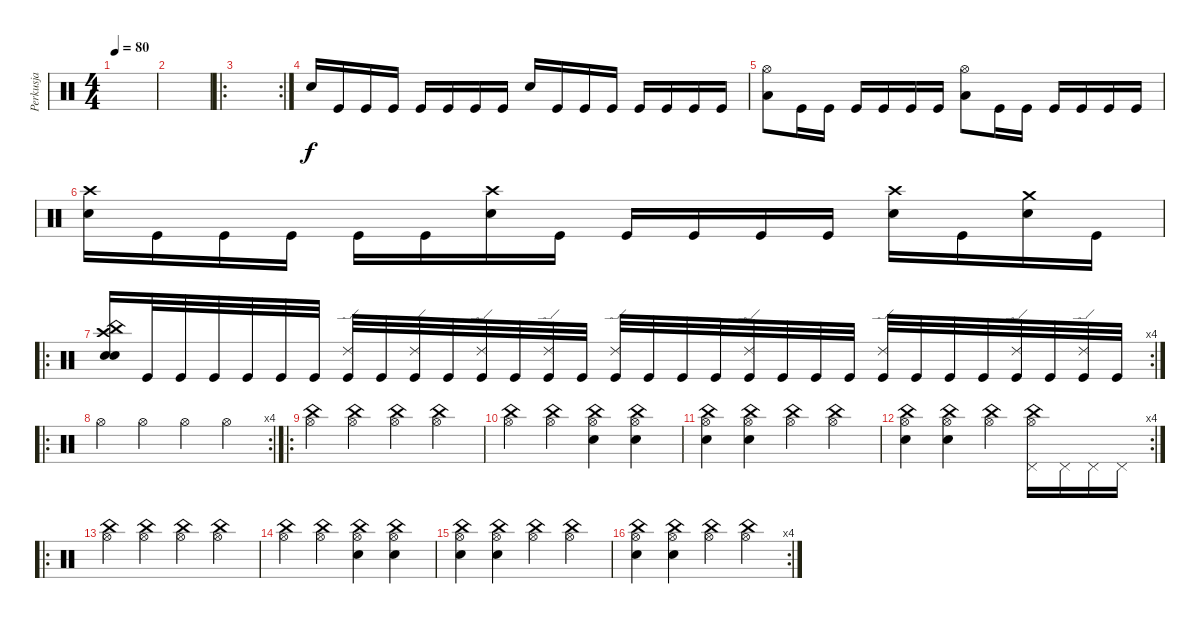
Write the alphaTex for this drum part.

\track ("Perkusja" "Perkusja") {instrument percussion}
\staff {score}
\articulation defaults
\ts (4 4)
\tempo 80
\clef neutral
\ks c
|
|
\ro
\rc 2
|
"Electric Snare (hit)".16 "Kick (hit)".16 "Kick (hit)".16 "Kick (hit)".16 "Kick (hit)".16 "Kick (hit)".16 "Kick (hit)".16 "Kick (hit)".16 "Electric Snare (hit)".16 "Kick (hit)".16 "Kick (hit)".16 "Kick (hit)".16 "Kick (hit)".16 "Kick (hit)".16 "Kick (hit)".16 "Kick (hit)".16 |
("Hi-Hat (open)" "Low Floor Tom (hit)").8 "Kick (hit)".16 "Kick (hit)".16 "Kick (hit)".16 "Kick (hit)".16 "Kick (hit)".16 "Kick (hit)".16 ("Hi-Hat (open)" "Low Floor Tom (hit)").8 "Kick (hit)".16 "Kick (hit)".16 "Kick (hit)".16 "Kick (hit)".16 "Kick (hit)".16 "Kick (hit)".16 |
("Crash high (hit)" "Electric Snare (hit)").16 "Kick (hit)".16 "Kick (hit)".16 "Kick (hit)".16 "Kick (hit)".16 "Kick (hit)".16 ("Crash high (hit)" "Electric Snare (hit)").16 "Kick (hit)".16 "Kick (hit)".16 "Kick (hit)".16 "Kick (hit)".16 "Kick (hit)".16 ("Crash high (hit)" "Electric Snare (hit)").16 "Kick (hit)".16 ("Crash medium (hit)" "Electric Snare (hit)").16 "Kick (hit)".16 |
\ro
\rc 4
("China (hit)" "Crash high (hit)" "Electric Snare (hit)" "Snare (hit) 2").16 "Kick (hit)".32 "Kick (hit)".32 "Kick (hit)".32 "Kick (hit)".32 "Kick (hit)".32 "Kick (hit)".32 ("Ride (edge) 2" "Kick (hit)").32 "Kick (hit)".32 ("Ride (edge) 2" "Kick (hit)").32 "Kick (hit)".32 ("Ride (edge) 2" "Kick (hit)").32 "Kick (hit)".32 ("Ride (edge) 2" "Kick (hit)").32 "Kick (hit)".32 ("Ride (edge) 2" "Kick (hit)").32 "Kick (hit)".32 "Kick (hit)".32 "Kick (hit)".32 ("Ride (edge) 2" "Kick (hit)").32 "Kick (hit)".32 "Kick (hit)".32 "Kick (hit)".32 ("Ride (edge) 2" "Kick (hit)").32 "Kick (hit)".32 "Kick (hit)".32 "Kick (hit)".32 ("Ride (edge) 2" "Kick (hit)").32 "Kick (hit)".32 ("Ride (edge) 2" "Kick (hit)").32 "Kick (hit)".32 |
\ro
\rc 4 "Hi-Hat (open)".4 "Hi-Hat (open)".4 "Hi-Hat (open)".4 "Hi-Hat (open)".4
|
\ro
("China (hit)" "Hi-Hat (open)").4 ("China (hit)" "Hi-Hat (open)").4 ("China (hit)" "Hi-Hat (open)").4 ("China (hit)" "Hi-Hat (open)").4 |
("China (hit)" "Hi-Hat (open)").4 ("China (hit)" "Hi-Hat (open)").4 ("Electric Snare (hit)" "China (hit)" "Hi-Hat (open)").4 ("Electric Snare (hit)" "China (hit)" "Hi-Hat (open)").4 |
("Electric Snare (hit)" "China (hit)" "Hi-Hat (open)").4 ("Electric Snare (hit)" "China (hit)" "Hi-Hat (open)").4 ("China (hit)" "Hi-Hat (open)").4 ("China (hit)" "Hi-Hat (open)").4 |
\rc 4
("Electric Snare (hit)" "China (hit)" "Hi-Hat (open)").4 ("Electric Snare (hit)" "China (hit)" "Hi-Hat (open)").4 ("China (hit)" "Hi-Hat (open)").4 ("Hi-Hat (open)" "China (hit)" "Pedal Hi-Hat (hit)").16 "Pedal Hi-Hat (hit)".16 "Pedal Hi-Hat (hit)".16 "Pedal Hi-Hat (hit)".16 |
\ro
("China (hit)" "Hi-Hat (open)").4 ("China (hit)" "Hi-Hat (open)").4 ("China (hit)" "Hi-Hat (open)").4 ("China (hit)" "Hi-Hat (open)").4 |
("China (hit)" "Hi-Hat (open)").4 ("China (hit)" "Hi-Hat (open)").4 ("Electric Snare (hit)" "China (hit)" "Hi-Hat (open)").4 ("Electric Snare (hit)" "China (hit)" "Hi-Hat (open)").4 |
("Electric Snare (hit)" "China (hit)" "Hi-Hat (open)").4 ("Electric Snare (hit)" "China (hit)" "Hi-Hat (open)").4 ("China (hit)" "Hi-Hat (open)").4 ("China (hit)" "Hi-Hat (open)").4 |
\rc 4
("Electric Snare (hit)" "China (hit)" "Hi-Hat (open)").4 ("Electric Snare (hit)" "China (hit)" "Hi-Hat (open)").4 ("China (hit)" "Hi-Hat (open)").4 ("China (hit)" "Hi-Hat (open)").4
